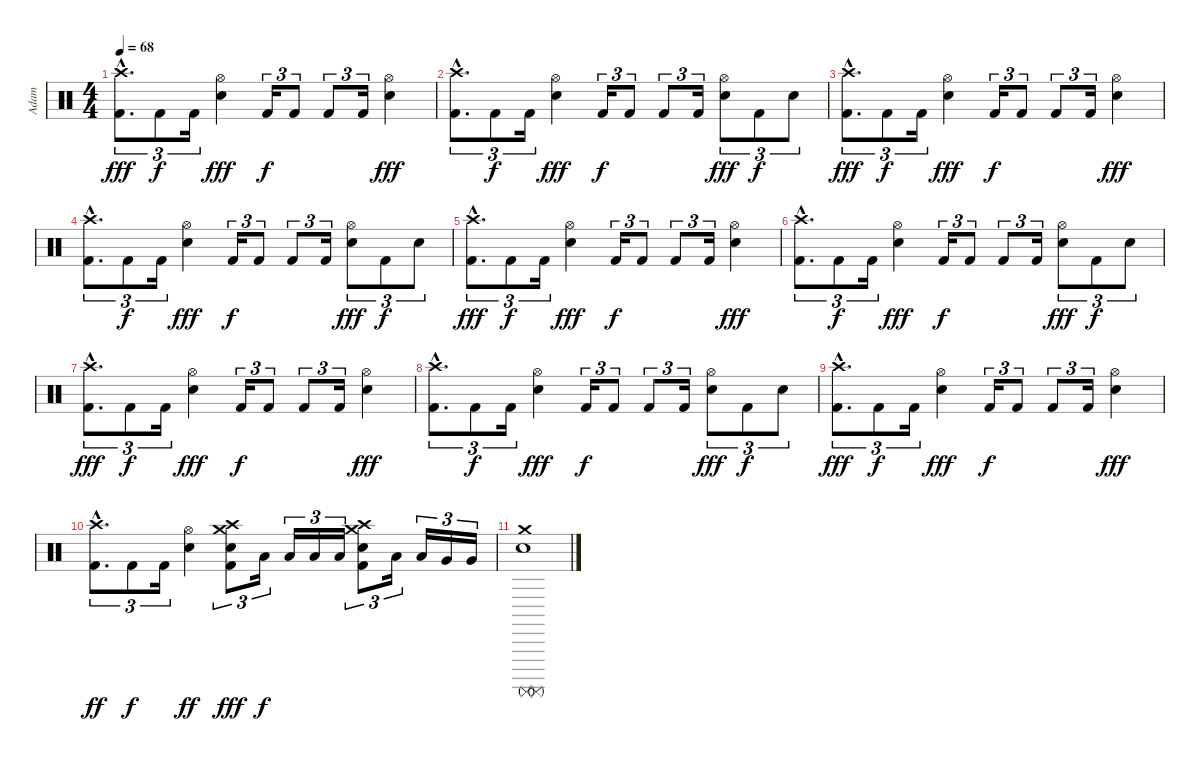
\track ("Adam" "Adam") {instrument percussion}
\staff {score}
\articulation defaults
\ts (4 4)
\tempo 68
\clef neutral
\ks c
("Crash high (hit)"{hac} "Kick (hit) 2"{hac}).8{d tu (3 2) dy fff} "Kick (hit) 2".8{tu (3 2) dy f} "Kick (hit) 2".16{tu (3 2)} ("Hi-Hat (open)" "Electric Snare (hit)").4{dy fff} "Kick (hit) 2".16{tu (3 2) dy f} "Kick (hit) 2".8{tu (3 2)} "Kick (hit) 2".8{tu (3 2)} "Kick (hit) 2".16{tu (3 2)} ("Hi-Hat (open)" "Electric Snare (hit)").4{dy fff} |
("Crash high (hit)"{hac} "Kick (hit) 2"{hac}).8{d tu (3 2)} "Kick (hit) 2".8{tu (3 2) dy f} "Kick (hit) 2".16{tu (3 2)} ("Hi-Hat (open)" "Electric Snare (hit)").4{dy fff} "Kick (hit) 2".16{tu (3 2) dy f} "Kick (hit) 2".8{tu (3 2)} "Kick (hit) 2".8{tu (3 2)} "Kick (hit) 2".16{tu (3 2)} ("Hi-Hat (open)" "Electric Snare (hit)").8{tu (3 2) dy fff} "Kick (hit) 2".8{tu (3 2) dy f} "Electric Snare (hit)".8{tu (3 2)} |
("Crash high (hit)"{hac} "Kick (hit) 2"{hac}).8{d tu (3 2) dy fff} "Kick (hit) 2".8{tu (3 2) dy f} "Kick (hit) 2".16{tu (3 2)} ("Hi-Hat (open)" "Electric Snare (hit)").4{dy fff} "Kick (hit) 2".16{tu (3 2) dy f} "Kick (hit) 2".8{tu (3 2)} "Kick (hit) 2".8{tu (3 2)} "Kick (hit) 2".16{tu (3 2)} ("Hi-Hat (open)" "Electric Snare (hit)").4{dy fff} |
("Crash high (hit)"{hac} "Kick (hit) 2"{hac}).8{d tu (3 2)} "Kick (hit) 2".8{tu (3 2) dy f} "Kick (hit) 2".16{tu (3 2)} ("Hi-Hat (open)" "Electric Snare (hit)").4{dy fff} "Kick (hit) 2".16{tu (3 2) dy f} "Kick (hit) 2".8{tu (3 2)} "Kick (hit) 2".8{tu (3 2)} "Kick (hit) 2".16{tu (3 2)} ("Hi-Hat (open)" "Electric Snare (hit)").8{tu (3 2) dy fff} "Kick (hit) 2".8{tu (3 2) dy f} "Electric Snare (hit)".8{tu (3 2)} |
("Crash high (hit)"{hac} "Kick (hit) 2"{hac}).8{d tu (3 2) dy fff} "Kick (hit) 2".8{tu (3 2) dy f} "Kick (hit) 2".16{tu (3 2)} ("Hi-Hat (open)" "Electric Snare (hit)").4{dy fff} "Kick (hit) 2".16{tu (3 2) dy f} "Kick (hit) 2".8{tu (3 2)} "Kick (hit) 2".8{tu (3 2)} "Kick (hit) 2".16{tu (3 2)} ("Hi-Hat (open)" "Electric Snare (hit)").4{dy fff} |
("Crash high (hit)"{hac} "Kick (hit) 2"{hac}).8{d tu (3 2)} "Kick (hit) 2".8{tu (3 2) dy f} "Kick (hit) 2".16{tu (3 2)} ("Hi-Hat (open)" "Electric Snare (hit)").4{dy fff} "Kick (hit) 2".16{tu (3 2) dy f} "Kick (hit) 2".8{tu (3 2)} "Kick (hit) 2".8{tu (3 2)} "Kick (hit) 2".16{tu (3 2)} ("Hi-Hat (open)" "Electric Snare (hit)").8{tu (3 2) dy fff} "Kick (hit) 2".8{tu (3 2) dy f} "Electric Snare (hit)".8{tu (3 2)} |
("Crash high (hit)"{hac} "Kick (hit) 2"{hac}).8{d tu (3 2) dy fff} "Kick (hit) 2".8{tu (3 2) dy f} "Kick (hit) 2".16{tu (3 2)} ("Hi-Hat (open)" "Electric Snare (hit)").4{dy fff} "Kick (hit) 2".16{tu (3 2) dy f} "Kick (hit) 2".8{tu (3 2)} "Kick (hit) 2".8{tu (3 2)} "Kick (hit) 2".16{tu (3 2)} ("Hi-Hat (open)" "Electric Snare (hit)").4{dy fff} |
("Crash high (hit)"{hac} "Kick (hit) 2"{hac}).8{d tu (3 2)} "Kick (hit) 2".8{tu (3 2) dy f} "Kick (hit) 2".16{tu (3 2)} ("Hi-Hat (open)" "Electric Snare (hit)").4{dy fff} "Kick (hit) 2".16{tu (3 2) dy f} "Kick (hit) 2".8{tu (3 2)} "Kick (hit) 2".8{tu (3 2)} "Kick (hit) 2".16{tu (3 2)} ("Hi-Hat (open)" "Electric Snare (hit)").8{tu (3 2) dy fff} "Kick (hit) 2".8{tu (3 2) dy f} "Electric Snare (hit)".8{tu (3 2)} |
("Crash high (hit)"{hac} "Kick (hit) 2"{hac}).8{d tu (3 2) dy fff} "Kick (hit) 2".8{tu (3 2) dy f} "Kick (hit) 2".16{tu (3 2)} ("Hi-Hat (open)" "Electric Snare (hit)").4{dy fff} "Kick (hit) 2".16{tu (3 2) dy f} "Kick (hit) 2".8{tu (3 2)} "Kick (hit) 2".8{tu (3 2)} "Kick (hit) 2".16{tu (3 2)} ("Hi-Hat (open)" "Electric Snare (hit)").4{dy fff} |
("Crash high (hit)"{hac} "Kick (hit) 2"{hac}).8{d tu (3 2) dy ff} "Kick (hit) 2".8{tu (3 2) dy f} "Kick (hit) 2".16{tu (3 2)} ("Hi-Hat (open)" "Electric Snare (hit)").4{dy ff} ("Crash high (hit)" "Crash medium (hit)" "Electric Snare (hit)" "Kick (hit) 2").8{tu (3 2) dy fff} "Low Tom (hit)".16{tu (3 2) dy f} "Low Tom (hit)".16{tu (3 2)} "Low Tom (hit)".16{tu (3 2)} "Low Tom (hit)".16{tu (3 2)} ("Crash high (hit)" "Crash medium (hit)" "Electric Snare (hit)" "Kick (hit) 2").8{tu (3 2)} "Low Tom (hit)".16{tu (3 2)} "Low Tom (hit)".16{tu (3 2)} "Very Low Tom (hit)".16{tu (3 2)} "Very Low Tom (hit)".16{tu (3 2)} |
("Crash medium (hit)" "Surdo (mute)" "Surdo (mute)" "Electric Snare (hit)").1
